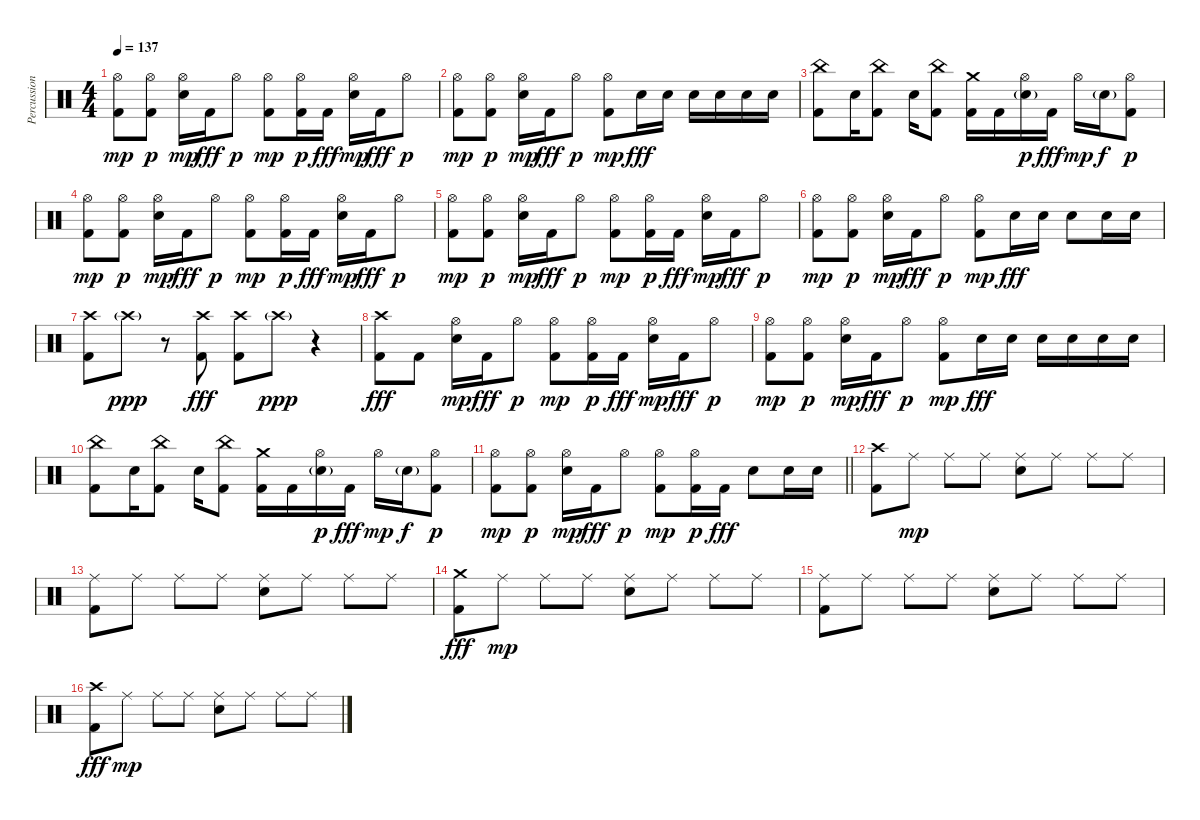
\track ("Percussion" "Percussion") {instrument percussion}
\staff {score}
\articulation defaults
\ts (4 4)
\tempo 137
\clef neutral
\ks c
("Kick (hit) 2" "Hi-Hat (open)").8{dy mp} ("Kick (hit) 2" "Hi-Hat (open)").8{dy p} ("Electric Snare (hit)" "Hi-Hat (open)").16{dy mp} "Kick (hit) 2".16{dy fff} "Hi-Hat (open)".8{dy p} ("Kick (hit) 2" "Hi-Hat (open)").8{dy mp} ("Kick (hit) 2" "Hi-Hat (open)").16{dy p} "Kick (hit) 2".16{dy fff} ("Electric Snare (hit)" "Hi-Hat (open)").16{dy mp} "Kick (hit) 2".16{dy fff} "Hi-Hat (open)".8{dy p} |
("Kick (hit) 2" "Hi-Hat (open)").8{dy mp} ("Kick (hit) 2" "Hi-Hat (open)").8{dy p} ("Electric Snare (hit)" "Hi-Hat (open)").16{dy mp} "Kick (hit) 2".16{dy fff} "Hi-Hat (open)".8{dy p} ("Kick (hit) 2" "Hi-Hat (open)").8{dy mp} "Electric Snare (hit)".16{dy fff} "Electric Snare (hit)".16 "Electric Snare (hit)".16 "Electric Snare (hit)".16 "Electric Snare (hit)".16 "Electric Snare (hit)".16 |
("Kick (hit) 2" "China (hit)").8 "Electric Snare (hit)".16 ("Kick (hit) 2" "China (hit)").8 "Electric Snare (hit)".16 ("Kick (hit) 2" "China (hit)").8 ("Kick (hit) 2" "Crash medium (hit)").16 "Kick (hit) 2".16 ("Electric Snare (hit)"{g} "Hi-Hat (open)").16{dy p} "Kick (hit) 2".16{dy fff} "Hi-Hat (open)".16{dy mp} "Electric Snare (hit)"{g}.16{dy f} ("Kick (hit) 2" "Hi-Hat (open)").8{dy p} |
("Kick (hit) 2" "Hi-Hat (open)").8{dy mp} ("Kick (hit) 2" "Hi-Hat (open)").8{dy p} ("Electric Snare (hit)" "Hi-Hat (open)").16{dy mp} "Kick (hit) 2".16{dy fff} "Hi-Hat (open)".8{dy p} ("Kick (hit) 2" "Hi-Hat (open)").8{dy mp} ("Kick (hit) 2" "Hi-Hat (open)").16{dy p} "Kick (hit) 2".16{dy fff} ("Electric Snare (hit)" "Hi-Hat (open)").16{dy mp} "Kick (hit) 2".16{dy fff} "Hi-Hat (open)".8{dy p} |
("Kick (hit) 2" "Hi-Hat (open)").8{dy mp} ("Kick (hit) 2" "Hi-Hat (open)").8{dy p} ("Electric Snare (hit)" "Hi-Hat (open)").16{dy mp} "Kick (hit) 2".16{dy fff} "Hi-Hat (open)".8{dy p} ("Kick (hit) 2" "Hi-Hat (open)").8{dy mp} ("Kick (hit) 2" "Hi-Hat (open)").16{dy p} "Kick (hit) 2".16{dy fff} ("Electric Snare (hit)" "Hi-Hat (open)").16{dy mp} "Kick (hit) 2".16{dy fff} "Hi-Hat (open)".8{dy p} |
("Kick (hit) 2" "Hi-Hat (open)").8{dy mp} ("Kick (hit) 2" "Hi-Hat (open)").8{dy p} ("Electric Snare (hit)" "Hi-Hat (open)").16{dy mp} "Kick (hit) 2".16{dy fff} "Hi-Hat (open)".8{dy p} ("Kick (hit) 2" "Hi-Hat (open)").8{dy mp} "Electric Snare (hit)".16{dy fff} "Electric Snare (hit)".16 "Electric Snare (hit)".8 "Electric Snare (hit)".16 "Electric Snare (hit)".16 |
("Kick (hit) 2" "Crash high (hit)").8 "Crash high (hit)"{g}.8{dy ppp} r.8 ("Kick (hit) 2" "Crash high (hit)").8{dy fff} ("Kick (hit) 2" "Crash high (hit)").8 "Crash high (hit)"{g}.8{dy ppp} r.4 |
("Kick (hit) 2" "Crash high (hit)").8{dy fff} "Kick (hit) 2".8 ("Electric Snare (hit)" "Hi-Hat (open)").16{dy mp} "Kick (hit) 2".16{dy fff} "Hi-Hat (open)".8{dy p} ("Kick (hit) 2" "Hi-Hat (open)").8{dy mp} ("Kick (hit) 2" "Hi-Hat (open)").16{dy p} "Kick (hit) 2".16{dy fff} ("Electric Snare (hit)" "Hi-Hat (open)").16{dy mp} "Kick (hit) 2".16{dy fff} "Hi-Hat (open)".8{dy p} |
("Kick (hit) 2" "Hi-Hat (open)").8{dy mp} ("Kick (hit) 2" "Hi-Hat (open)").8{dy p} ("Electric Snare (hit)" "Hi-Hat (open)").16{dy mp} "Kick (hit) 2".16{dy fff} "Hi-Hat (open)".8{dy p} ("Kick (hit) 2" "Hi-Hat (open)").8{dy mp} "Electric Snare (hit)".16{dy fff} "Electric Snare (hit)".16 "Electric Snare (hit)".16 "Electric Snare (hit)".16 "Electric Snare (hit)".16 "Electric Snare (hit)".16 |
("Kick (hit) 2" "China (hit)").8 "Electric Snare (hit)".16 ("Kick (hit) 2" "China (hit)").8 "Electric Snare (hit)".16 ("Kick (hit) 2" "China (hit)").8 ("Kick (hit) 2" "Crash medium (hit)").16 "Kick (hit) 2".16 ("Electric Snare (hit)"{g} "Hi-Hat (open)").16{dy p} "Kick (hit) 2".16{dy fff} "Hi-Hat (open)".16{dy mp} "Electric Snare (hit)"{g}.16{dy f} ("Kick (hit) 2" "Hi-Hat (open)").8{dy p} |
\barLineRight lightlight
("Kick (hit) 2" "Hi-Hat (open)").8{dy mp} ("Kick (hit) 2" "Hi-Hat (open)").8{dy p} ("Electric Snare (hit)" "Hi-Hat (open)").16{dy mp} "Kick (hit) 2".16{dy fff} "Hi-Hat (open)".8{dy p} ("Kick (hit) 2" "Hi-Hat (open)").8{dy mp} ("Kick (hit) 2" "Hi-Hat (open)").16{dy p} "Kick (hit) 2".16{dy fff} "Electric Snare (hit)".8 "Electric Snare (hit)".16 "Electric Snare (hit)".16 |
("Kick (hit) 2" "Crash high (hit)").8 "Ride (middle)".8{dy mp} "Ride (middle)".8 "Ride (middle)".8 ("Electric Snare (hit)" "Ride (middle)").8 "Ride (middle)".8 "Ride (middle)".8 "Ride (middle)".8 |
("Kick (hit) 2" "Ride (middle)").8 "Ride (middle)".8 "Ride (middle)".8 "Ride (middle)".8 ("Electric Snare (hit)" "Ride (middle)").8 "Ride (middle)".8 "Ride (middle)".8 "Ride (middle)".8 |
("Kick (hit) 2" "Crash medium (hit)").8{dy fff} "Ride (middle)".8{dy mp} "Ride (middle)".8 "Ride (middle)".8 ("Electric Snare (hit)" "Ride (middle)").8 "Ride (middle)".8 "Ride (middle)".8 "Ride (middle)".8 |
("Kick (hit) 2" "Ride (middle)").8 "Ride (middle)".8 "Ride (middle)".8 "Ride (middle)".8 ("Electric Snare (hit)" "Ride (middle)").8 "Ride (middle)".8 "Ride (middle)".8 "Ride (middle)".8 |
("Kick (hit) 2" "Crash high (hit)").8{dy fff} "Ride (middle)".8{dy mp} "Ride (middle)".8 "Ride (middle)".8 ("Electric Snare (hit)" "Ride (middle)").8 "Ride (middle)".8 "Ride (middle)".8 "Ride (middle)".8
